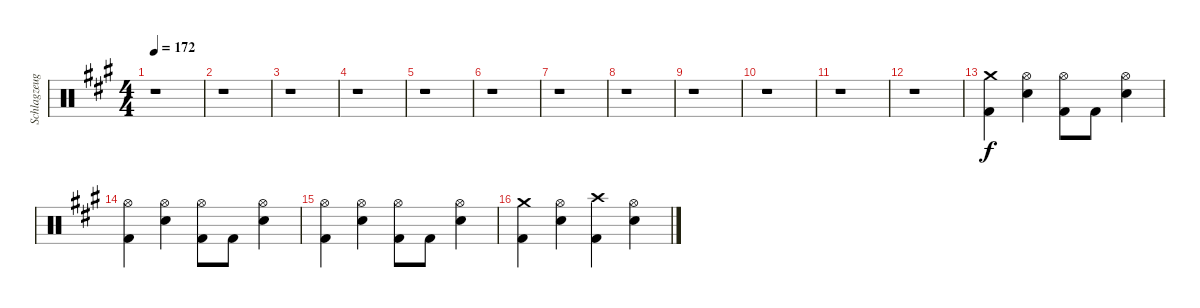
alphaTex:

\track ("Schlagzeug" "Schlagzeug") {instrument percussion}
\staff {score}
\articulation defaults
\ts (4 4)
\tempo 172
\clef neutral
\ks a
r.1{dy f} |
r.1 |
r.1 |
r.1 |
r.1 |
r.1 |
r.1 |
r.1 |
r.1 |
r.1 |
r.1 |
r.1 |
("Crash medium (hit)" "Kick (hit) 2").4 ("Hi-Hat (open)" "Snare (hit) 2").4 ("Hi-Hat (open)" "Kick (hit) 2").8 "Kick (hit) 2".8 ("Hi-Hat (open)" "Snare (hit) 2").4 |
("Hi-Hat (open)" "Kick (hit) 2").4 ("Hi-Hat (open)" "Snare (hit) 2").4 ("Hi-Hat (open)" "Kick (hit) 2").8 "Kick (hit) 2".8 ("Hi-Hat (open)" "Snare (hit) 2").4 |
("Hi-Hat (open)" "Kick (hit) 2").4 ("Hi-Hat (open)" "Snare (hit) 2").4 ("Hi-Hat (open)" "Kick (hit) 2").8 "Kick (hit) 2".8 ("Hi-Hat (open)" "Snare (hit) 2").4 |
("Crash medium (hit)" "Kick (hit) 2").4 ("Hi-Hat (open)" "Snare (hit) 2").4 ("Crash high (hit)" "Kick (hit) 2").4 ("Hi-Hat (open)" "Snare (hit) 2").4
